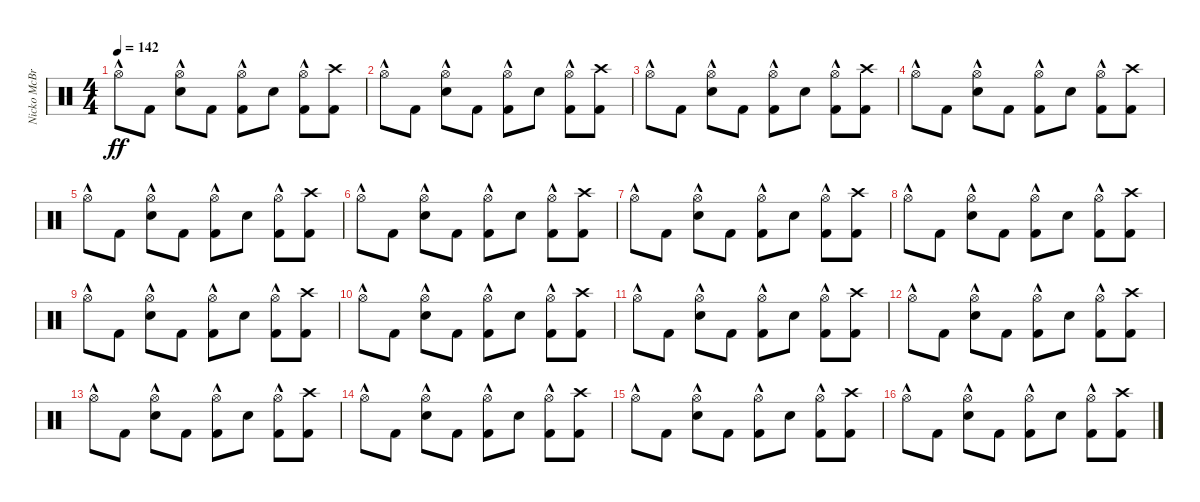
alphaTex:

\track ("Nicko McBrain" "Nicko McBr") {instrument percussion}
\staff {score}
\articulation defaults
\ts (4 4)
\tempo 142
\clef neutral
\ks c "Hi-Hat (open)"{hac}.8{dy ff} "Kick (hit) 2".8
("Snare (hit) 2" "Hi-Hat (open)"{hac}).8 "Kick (hit) 2".8 ("Kick (hit) 2" "Hi-Hat (open)"{hac}).8 "Snare (hit) 2".8 ("Kick (hit) 2" "Hi-Hat (open)"{hac}).8 ("Kick (hit) 2" "Crash high (hit)").8 |
"Hi-Hat (open)"{hac}.8 "Kick (hit) 2".8 ("Snare (hit) 2" "Hi-Hat (open)"{hac}).8 "Kick (hit) 2".8 ("Kick (hit) 2" "Hi-Hat (open)"{hac}).8 "Snare (hit) 2".8 ("Kick (hit) 2" "Hi-Hat (open)"{hac}).8 ("Kick (hit) 2" "Crash high (hit)").8 |
"Hi-Hat (open)"{hac}.8 "Kick (hit) 2".8 ("Snare (hit) 2" "Hi-Hat (open)"{hac}).8 "Kick (hit) 2".8 ("Kick (hit) 2" "Hi-Hat (open)"{hac}).8 "Snare (hit) 2".8 ("Kick (hit) 2" "Hi-Hat (open)"{hac}).8 ("Kick (hit) 2" "Crash high (hit)").8 |
"Hi-Hat (open)"{hac}.8 "Kick (hit) 2".8 ("Snare (hit) 2" "Hi-Hat (open)"{hac}).8 "Kick (hit) 2".8 ("Kick (hit) 2" "Hi-Hat (open)"{hac}).8 "Snare (hit) 2".8 ("Kick (hit) 2" "Hi-Hat (open)"{hac}).8 ("Kick (hit) 2" "Crash high (hit)").8 |
"Hi-Hat (open)"{hac}.8 "Kick (hit) 2".8 ("Snare (hit) 2" "Hi-Hat (open)"{hac}).8 "Kick (hit) 2".8 ("Kick (hit) 2" "Hi-Hat (open)"{hac}).8 "Snare (hit) 2".8 ("Kick (hit) 2" "Hi-Hat (open)"{hac}).8 ("Kick (hit) 2" "Crash high (hit)").8 |
"Hi-Hat (open)"{hac}.8 "Kick (hit) 2".8 ("Snare (hit) 2" "Hi-Hat (open)"{hac}).8 "Kick (hit) 2".8 ("Kick (hit) 2" "Hi-Hat (open)"{hac}).8 "Snare (hit) 2".8 ("Kick (hit) 2" "Hi-Hat (open)"{hac}).8 ("Kick (hit) 2" "Crash high (hit)").8 |
"Hi-Hat (open)"{hac}.8 "Kick (hit) 2".8 ("Snare (hit) 2" "Hi-Hat (open)"{hac}).8 "Kick (hit) 2".8 ("Kick (hit) 2" "Hi-Hat (open)"{hac}).8 "Snare (hit) 2".8 ("Kick (hit) 2" "Hi-Hat (open)"{hac}).8 ("Kick (hit) 2" "Crash high (hit)").8 |
"Hi-Hat (open)"{hac}.8 "Kick (hit) 2".8 ("Snare (hit) 2" "Hi-Hat (open)"{hac}).8 "Kick (hit) 2".8 ("Kick (hit) 2" "Hi-Hat (open)"{hac}).8 "Snare (hit) 2".8 ("Kick (hit) 2" "Hi-Hat (open)"{hac}).8 ("Kick (hit) 2" "Crash high (hit)").8 |
"Hi-Hat (open)"{hac}.8 "Kick (hit) 2".8 ("Snare (hit) 2" "Hi-Hat (open)"{hac}).8 "Kick (hit) 2".8 ("Kick (hit) 2" "Hi-Hat (open)"{hac}).8 "Snare (hit) 2".8 ("Kick (hit) 2" "Hi-Hat (open)"{hac}).8 ("Kick (hit) 2" "Crash high (hit)").8 |
"Hi-Hat (open)"{hac}.8 "Kick (hit) 2".8 ("Snare (hit) 2" "Hi-Hat (open)"{hac}).8 "Kick (hit) 2".8 ("Kick (hit) 2" "Hi-Hat (open)"{hac}).8 "Snare (hit) 2".8 ("Kick (hit) 2" "Hi-Hat (open)"{hac}).8 ("Kick (hit) 2" "Crash high (hit)").8 |
"Hi-Hat (open)"{hac}.8 "Kick (hit) 2".8 ("Snare (hit) 2" "Hi-Hat (open)"{hac}).8 "Kick (hit) 2".8 ("Kick (hit) 2" "Hi-Hat (open)"{hac}).8 "Snare (hit) 2".8 ("Kick (hit) 2" "Hi-Hat (open)"{hac}).8 ("Kick (hit) 2" "Crash high (hit)").8 |
"Hi-Hat (open)"{hac}.8 "Kick (hit) 2".8 ("Snare (hit) 2" "Hi-Hat (open)"{hac}).8 "Kick (hit) 2".8 ("Kick (hit) 2" "Hi-Hat (open)"{hac}).8 "Snare (hit) 2".8 ("Kick (hit) 2" "Hi-Hat (open)"{hac}).8 ("Kick (hit) 2" "Crash high (hit)").8 |
"Hi-Hat (open)"{hac}.8 "Kick (hit) 2".8 ("Snare (hit) 2" "Hi-Hat (open)"{hac}).8 "Kick (hit) 2".8 ("Kick (hit) 2" "Hi-Hat (open)"{hac}).8 "Snare (hit) 2".8 ("Kick (hit) 2" "Hi-Hat (open)"{hac}).8 ("Kick (hit) 2" "Crash high (hit)").8 |
"Hi-Hat (open)"{hac}.8 "Kick (hit) 2".8 ("Snare (hit) 2" "Hi-Hat (open)"{hac}).8 "Kick (hit) 2".8 ("Kick (hit) 2" "Hi-Hat (open)"{hac}).8 "Snare (hit) 2".8 ("Kick (hit) 2" "Hi-Hat (open)"{hac}).8 ("Kick (hit) 2" "Crash high (hit)").8 |
"Hi-Hat (open)"{hac}.8 "Kick (hit) 2".8 ("Snare (hit) 2" "Hi-Hat (open)"{hac}).8 "Kick (hit) 2".8 ("Kick (hit) 2" "Hi-Hat (open)"{hac}).8 "Snare (hit) 2".8 ("Kick (hit) 2" "Hi-Hat (open)"{hac}).8 ("Kick (hit) 2" "Crash high (hit)").8 |
"Hi-Hat (open)"{hac}.8 "Kick (hit) 2".8 ("Snare (hit) 2" "Hi-Hat (open)"{hac}).8 "Kick (hit) 2".8 ("Kick (hit) 2" "Hi-Hat (open)"{hac}).8 "Snare (hit) 2".8 ("Kick (hit) 2" "Hi-Hat (open)"{hac}).8 ("Kick (hit) 2" "Crash high (hit)").8
